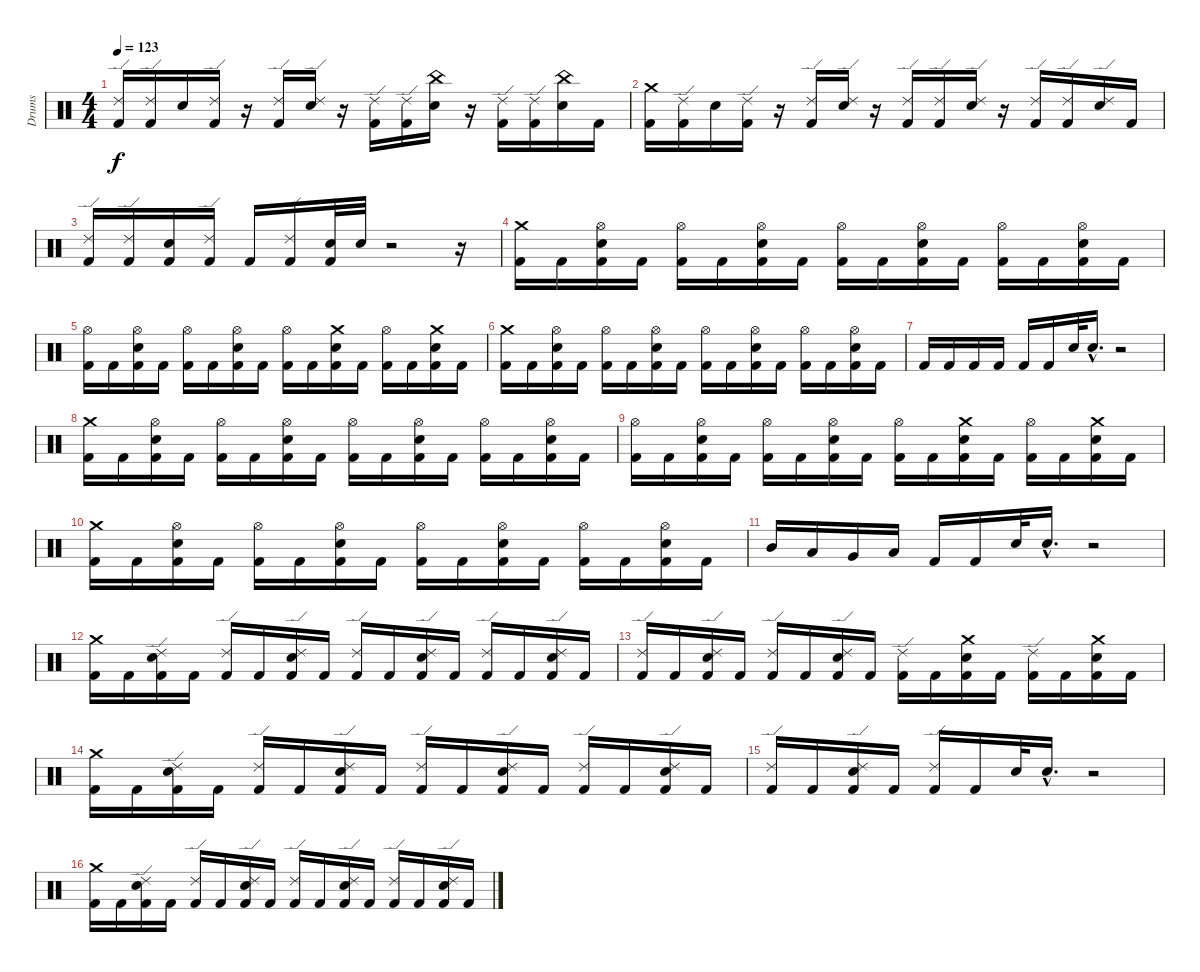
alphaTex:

\track ("Drums" "Drums") {instrument percussion}
\staff {score}
\articulation defaults
\ts (4 4)
\tempo 123
\clef neutral
\ks c
("Kick (hit) 2" "Ride (edge) 2").16{dy f} ("Kick (hit) 2" "Ride (edge) 2").16 "Electric Snare (hit)".16 ("Kick (hit) 2" "Ride (edge) 2").16 r.16 ("Kick (hit) 2" "Ride (edge) 2").16 ("Electric Snare (hit)" "Ride (edge) 2").16 r.16 ("Ride (edge) 2" "Kick (hit) 2").16 ("Ride (edge) 2" "Kick (hit) 2").16 ("China (hit)" "Electric Snare (hit)").16 r.16 ("Ride (edge) 2" "Kick (hit) 2").16 ("Ride (edge) 2" "Kick (hit) 2").16 ("China (hit)" "Electric Snare (hit)").16 "Kick (hit) 2".16 |
("Crash medium (hit)" "Kick (hit) 2").16 ("Kick (hit) 2" "Ride (edge) 2").16 "Electric Snare (hit)".16 ("Kick (hit) 2" "Ride (edge) 2").16 r.16 ("Kick (hit) 2" "Ride (edge) 2").16 ("Electric Snare (hit)" "Ride (edge) 2").16 r.16 ("Kick (hit) 2" "Ride (edge) 2").16 ("Kick (hit) 2" "Ride (edge) 2").16 ("Electric Snare (hit)" "Ride (edge) 2").16 r.16 ("Kick (hit) 2" "Ride (edge) 2").16 ("Kick (hit) 2" "Ride (edge) 2").16 ("Electric Snare (hit)" "Ride (edge) 2").16 "Kick (hit) 2".16 |
("Kick (hit) 2" "Ride (edge) 2").16 ("Kick (hit) 2" "Ride (edge) 2").16 ("Kick (hit) 2" "Electric Snare (hit)").16 ("Kick (hit) 2" "Ride (edge) 2").16 "Kick (hit) 2".16 ("Kick (hit) 2" "Ride (edge) 2").16 ("Kick (hit) 2" "Electric Snare (hit)").32 "Electric Snare (hit)".32 r.2 r.16 |
("Crash medium (hit)" "Kick (hit) 2").16 "Kick (hit) 2".16 ("Hi-Hat (open)" "Electric Snare (hit)" "Kick (hit) 2").16 "Kick (hit) 2".16 ("Hi-Hat (open)" "Kick (hit) 2").16 "Kick (hit) 2".16 ("Hi-Hat (open)" "Electric Snare (hit)" "Kick (hit) 2").16 "Kick (hit) 2".16 ("Hi-Hat (open)" "Kick (hit) 2").16 "Kick (hit) 2".16 ("Hi-Hat (open)" "Electric Snare (hit)" "Kick (hit) 2").16 "Kick (hit) 2".16 ("Hi-Hat (open)" "Kick (hit) 2").16 "Kick (hit) 2".16 ("Hi-Hat (open)" "Electric Snare (hit)" "Kick (hit) 2").16 "Kick (hit) 2".16 |
("Hi-Hat (open)" "Kick (hit) 2").16 "Kick (hit) 2".16 ("Hi-Hat (open)" "Electric Snare (hit)" "Kick (hit) 2").16 "Kick (hit) 2".16 ("Hi-Hat (open)" "Kick (hit) 2").16 "Kick (hit) 2".16 ("Hi-Hat (open)" "Electric Snare (hit)" "Kick (hit) 2").16 "Kick (hit) 2".16 ("Hi-Hat (open)" "Kick (hit) 2").16 "Kick (hit) 2".16 ("Crash medium (hit)" "Electric Snare (hit)" "Kick (hit) 2").16 "Kick (hit) 2".16 ("Hi-Hat (open)" "Kick (hit) 2").16 "Kick (hit) 2".16 ("Crash medium (hit)" "Electric Snare (hit)" "Kick (hit) 2").16 "Kick (hit) 2".16 |
("Crash medium (hit)" "Kick (hit) 2").16 "Kick (hit) 2".16 ("Hi-Hat (open)" "Electric Snare (hit)" "Kick (hit) 2").16 "Kick (hit) 2".16 ("Hi-Hat (open)" "Kick (hit) 2").16 "Kick (hit) 2".16 ("Hi-Hat (open)" "Electric Snare (hit)" "Kick (hit) 2").16 "Kick (hit) 2".16 ("Hi-Hat (open)" "Kick (hit) 2").16 "Kick (hit) 2".16 ("Hi-Hat (open)" "Electric Snare (hit)" "Kick (hit) 2").16 "Kick (hit) 2".16 ("Hi-Hat (open)" "Kick (hit) 2").16 "Kick (hit) 2".16 ("Hi-Hat (open)" "Electric Snare (hit)" "Kick (hit) 2").16 "Kick (hit) 2".16 |
"Kick (hit) 2".16 "Kick (hit) 2".16 "Kick (hit) 2".16 "Kick (hit) 2".16 "Kick (hit) 2".16 "Kick (hit) 2".16 "Electric Snare (hit)".32 "Electric Snare (hit)"{hac}.16{d} r.2 |
("Crash medium (hit)" "Kick (hit) 2").16 "Kick (hit) 2".16 ("Hi-Hat (open)" "Electric Snare (hit)" "Kick (hit) 2").16 "Kick (hit) 2".16 ("Hi-Hat (open)" "Kick (hit) 2").16 "Kick (hit) 2".16 ("Hi-Hat (open)" "Electric Snare (hit)" "Kick (hit) 2").16 "Kick (hit) 2".16 ("Hi-Hat (open)" "Kick (hit) 2").16 "Kick (hit) 2".16 ("Hi-Hat (open)" "Electric Snare (hit)" "Kick (hit) 2").16 "Kick (hit) 2".16 ("Hi-Hat (open)" "Kick (hit) 2").16 "Kick (hit) 2".16 ("Hi-Hat (open)" "Electric Snare (hit)" "Kick (hit) 2").16 "Kick (hit) 2".16 |
("Hi-Hat (open)" "Kick (hit) 2").16 "Kick (hit) 2".16 ("Hi-Hat (open)" "Electric Snare (hit)" "Kick (hit) 2").16 "Kick (hit) 2".16 ("Hi-Hat (open)" "Kick (hit) 2").16 "Kick (hit) 2".16 ("Hi-Hat (open)" "Electric Snare (hit)" "Kick (hit) 2").16 "Kick (hit) 2".16 ("Hi-Hat (open)" "Kick (hit) 2").16 "Kick (hit) 2".16 ("Crash medium (hit)" "Electric Snare (hit)" "Kick (hit) 2").16 "Kick (hit) 2".16 ("Hi-Hat (open)" "Kick (hit) 2").16 "Kick (hit) 2".16 ("Crash medium (hit)" "Electric Snare (hit)" "Kick (hit) 2").16 "Kick (hit) 2".16 |
("Crash medium (hit)" "Kick (hit) 2").16 "Kick (hit) 2".16 ("Hi-Hat (open)" "Electric Snare (hit)" "Kick (hit) 2").16 "Kick (hit) 2".16 ("Hi-Hat (open)" "Kick (hit) 2").16 "Kick (hit) 2".16 ("Hi-Hat (open)" "Electric Snare (hit)" "Kick (hit) 2").16 "Kick (hit) 2".16 ("Hi-Hat (open)" "Kick (hit) 2").16 "Kick (hit) 2".16 ("Hi-Hat (open)" "Electric Snare (hit)" "Kick (hit) 2").16 "Kick (hit) 2".16 ("Hi-Hat (open)" "Kick (hit) 2").16 "Kick (hit) 2".16 ("Hi-Hat (open)" "Electric Snare (hit)" "Kick (hit) 2").16 "Kick (hit) 2".16 |
"Mid Tom (hit)".16 "Low Tom (hit)".16 "Very Low Tom (hit)".16 "Low Floor Tom (hit)".16 "Kick (hit) 2".16 "Kick (hit) 2".16 "Electric Snare (hit)".32 "Electric Snare (hit)"{hac}.16{d} r.2 |
("Crash medium (hit)" "Kick (hit) 2").16 "Kick (hit) 2".16 ("Ride (edge) 2" "Electric Snare (hit)" "Kick (hit) 2").16 "Kick (hit) 2".16 ("Ride (edge) 2" "Kick (hit) 2").16 "Kick (hit) 2".16 ("Ride (edge) 2" "Electric Snare (hit)" "Kick (hit) 2").16 "Kick (hit) 2".16 ("Ride (edge) 2" "Kick (hit) 2").16 "Kick (hit) 2".16 ("Ride (edge) 2" "Electric Snare (hit)" "Kick (hit) 2").16 "Kick (hit) 2".16 ("Ride (edge) 2" "Kick (hit) 2").16 "Kick (hit) 2".16 ("Ride (edge) 2" "Electric Snare (hit)" "Kick (hit) 2").16 "Kick (hit) 2".16 |
("Ride (edge) 2" "Kick (hit) 2").16 "Kick (hit) 2".16 ("Ride (edge) 2" "Electric Snare (hit)" "Kick (hit) 2").16 "Kick (hit) 2".16 ("Ride (edge) 2" "Kick (hit) 2").16 "Kick (hit) 2".16 ("Ride (edge) 2" "Electric Snare (hit)" "Kick (hit) 2").16 "Kick (hit) 2".16 ("Ride (edge) 2" "Kick (hit) 2").16 "Kick (hit) 2".16 ("Crash medium (hit)" "Electric Snare (hit)" "Kick (hit) 2").16 "Kick (hit) 2".16 ("Ride (edge) 2" "Kick (hit) 2").16 "Kick (hit) 2".16 ("Crash medium (hit)" "Electric Snare (hit)" "Kick (hit) 2").16 "Kick (hit) 2".16 |
("Crash medium (hit)" "Kick (hit) 2").16 "Kick (hit) 2".16 ("Ride (edge) 2" "Electric Snare (hit)" "Kick (hit) 2").16 "Kick (hit) 2".16 ("Ride (edge) 2" "Kick (hit) 2").16 "Kick (hit) 2".16 ("Ride (edge) 2" "Electric Snare (hit)" "Kick (hit) 2").16 "Kick (hit) 2".16 ("Ride (edge) 2" "Kick (hit) 2").16 "Kick (hit) 2".16 ("Ride (edge) 2" "Electric Snare (hit)" "Kick (hit) 2").16 "Kick (hit) 2".16 ("Ride (edge) 2" "Kick (hit) 2").16 "Kick (hit) 2".16 ("Ride (edge) 2" "Electric Snare (hit)" "Kick (hit) 2").16 "Kick (hit) 2".16 |
("Ride (edge) 2" "Kick (hit) 2").16 "Kick (hit) 2".16 ("Electric Snare (hit)" "Ride (edge) 2" "Kick (hit) 2").16 "Kick (hit) 2".16 ("Ride (edge) 2" "Kick (hit) 2").16 "Kick (hit) 2".16 "Electric Snare (hit)".32 "Electric Snare (hit)"{hac}.16{d} r.2 |
("Crash medium (hit)" "Kick (hit) 2").16 "Kick (hit) 2".16 ("Ride (edge) 2" "Electric Snare (hit)" "Kick (hit) 2").16 "Kick (hit) 2".16 ("Ride (edge) 2" "Kick (hit) 2").16 "Kick (hit) 2".16 ("Ride (edge) 2" "Electric Snare (hit)" "Kick (hit) 2").16 "Kick (hit) 2".16 ("Ride (edge) 2" "Kick (hit) 2").16 "Kick (hit) 2".16 ("Ride (edge) 2" "Electric Snare (hit)" "Kick (hit) 2").16 "Kick (hit) 2".16 ("Ride (edge) 2" "Kick (hit) 2").16 "Kick (hit) 2".16 ("Ride (edge) 2" "Electric Snare (hit)" "Kick (hit) 2").16 "Kick (hit) 2".16
